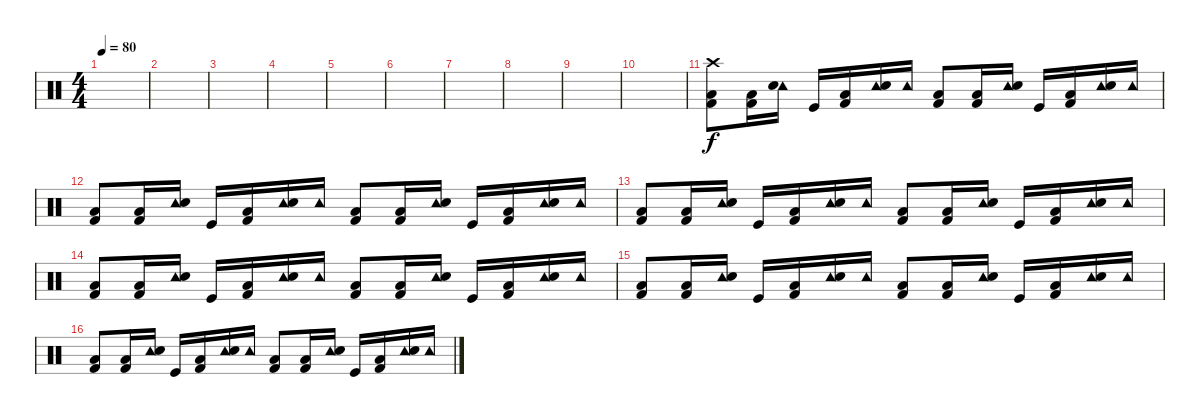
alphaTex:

\track "" {instrument percussion}
\staff {score}
\articulation defaults
\ts (4 4)
\tempo 80
\clef neutral
\ks c
|
|
|
|
|
|
|
|
|
|
("Kick (hit) 2" "Low Floor Tom (hit)" "Crash high (hit)").8{dy f} ("Kick (hit) 2" "Low Floor Tom (hit)").16 ("Tambourine (hit)" "Electric Snare (hit)").16 "Kick (hit)".16 ("Kick (hit) 2" "Low Floor Tom (hit)").16 ("Tambourine (hit)" "Electric Snare (hit)").16 "Tambourine (hit)".16 ("Kick (hit) 2" "Low Floor Tom (hit)").8 ("Kick (hit) 2" "Low Floor Tom (hit)").16 ("Tambourine (hit)" "Electric Snare (hit)").16 "Kick (hit)".16 ("Kick (hit) 2" "Low Floor Tom (hit)").16 ("Tambourine (hit)" "Electric Snare (hit)").16 "Tambourine (hit)".16 |
("Kick (hit) 2" "Low Floor Tom (hit)").8 ("Kick (hit) 2" "Low Floor Tom (hit)").16 ("Tambourine (hit)" "Electric Snare (hit)").16 "Kick (hit)".16 ("Kick (hit) 2" "Low Floor Tom (hit)").16 ("Tambourine (hit)" "Electric Snare (hit)").16 "Tambourine (hit)".16 ("Kick (hit) 2" "Low Floor Tom (hit)").8 ("Kick (hit) 2" "Low Floor Tom (hit)").16 ("Tambourine (hit)" "Electric Snare (hit)").16 "Kick (hit)".16 ("Kick (hit) 2" "Low Floor Tom (hit)").16 ("Tambourine (hit)" "Electric Snare (hit)").16 "Tambourine (hit)".16 |
("Kick (hit) 2" "Low Floor Tom (hit)").8 ("Kick (hit) 2" "Low Floor Tom (hit)").16 ("Tambourine (hit)" "Electric Snare (hit)").16 "Kick (hit)".16 ("Kick (hit) 2" "Low Floor Tom (hit)").16 ("Tambourine (hit)" "Electric Snare (hit)").16 "Tambourine (hit)".16 ("Kick (hit) 2" "Low Floor Tom (hit)").8 ("Kick (hit) 2" "Low Floor Tom (hit)").16 ("Tambourine (hit)" "Electric Snare (hit)").16 "Kick (hit)".16 ("Kick (hit) 2" "Low Floor Tom (hit)").16 ("Tambourine (hit)" "Electric Snare (hit)").16 "Tambourine (hit)".16 |
("Kick (hit) 2" "Low Floor Tom (hit)").8 ("Kick (hit) 2" "Low Floor Tom (hit)").16 ("Tambourine (hit)" "Electric Snare (hit)").16 "Kick (hit)".16 ("Kick (hit) 2" "Low Floor Tom (hit)").16 ("Tambourine (hit)" "Electric Snare (hit)").16 "Tambourine (hit)".16 ("Kick (hit) 2" "Low Floor Tom (hit)").8 ("Kick (hit) 2" "Low Floor Tom (hit)").16 ("Tambourine (hit)" "Electric Snare (hit)").16 "Kick (hit)".16 ("Kick (hit) 2" "Low Floor Tom (hit)").16 ("Tambourine (hit)" "Electric Snare (hit)").16 "Tambourine (hit)".16 |
("Kick (hit) 2" "Low Floor Tom (hit)").8 ("Kick (hit) 2" "Low Floor Tom (hit)").16 ("Tambourine (hit)" "Electric Snare (hit)").16 "Kick (hit)".16 ("Kick (hit) 2" "Low Floor Tom (hit)").16 ("Tambourine (hit)" "Electric Snare (hit)").16 "Tambourine (hit)".16 ("Kick (hit) 2" "Low Floor Tom (hit)").8 ("Kick (hit) 2" "Low Floor Tom (hit)").16 ("Tambourine (hit)" "Electric Snare (hit)").16 "Kick (hit)".16 ("Kick (hit) 2" "Low Floor Tom (hit)").16 ("Tambourine (hit)" "Electric Snare (hit)").16 "Tambourine (hit)".16 |
("Kick (hit) 2" "Low Floor Tom (hit)").8 ("Kick (hit) 2" "Low Floor Tom (hit)").16 ("Tambourine (hit)" "Electric Snare (hit)").16 "Kick (hit)".16 ("Kick (hit) 2" "Low Floor Tom (hit)").16 ("Tambourine (hit)" "Electric Snare (hit)").16 "Tambourine (hit)".16 ("Kick (hit) 2" "Low Floor Tom (hit)").8 ("Kick (hit) 2" "Low Floor Tom (hit)").16 ("Tambourine (hit)" "Electric Snare (hit)").16 "Kick (hit)".16 ("Kick (hit) 2" "Low Floor Tom (hit)").16 ("Tambourine (hit)" "Electric Snare (hit)").16 "Tambourine (hit)".16
